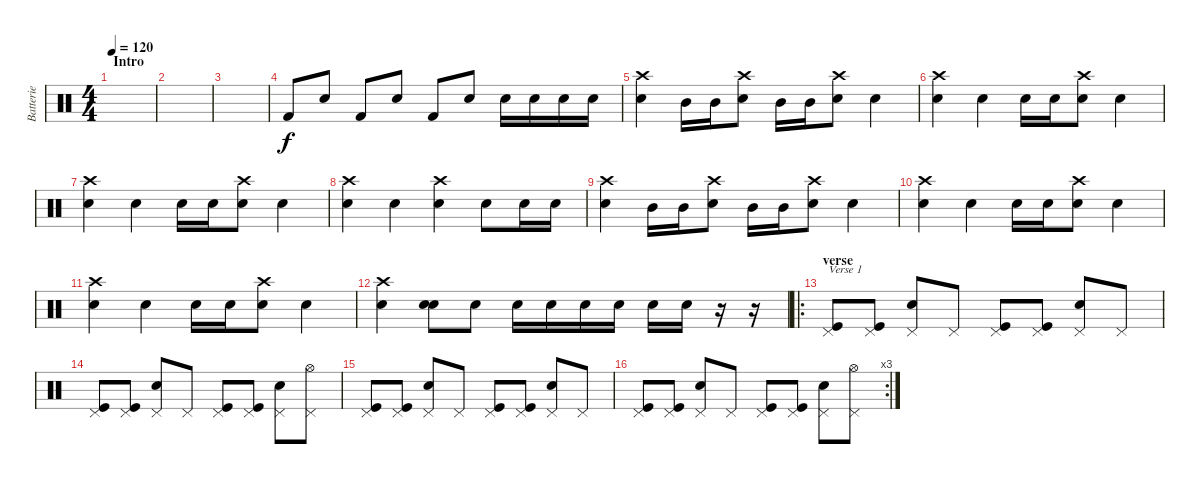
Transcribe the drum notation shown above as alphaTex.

\track ("Batterie" "Batterie") {instrument percussion}
\staff {score}
\articulation defaults
\ts (4 4)
\section ("" "Intro")
\tempo 120
\clef neutral
\ks c
|
|
|
"Kick (hit) 2".8 "Electric Snare (hit)".8 "Kick (hit) 2".8 "Electric Snare (hit)".8 "Kick (hit) 2".8 "Electric Snare (hit)".8 "Electric Snare (hit)".16 "Electric Snare (hit)".16 "Electric Snare (hit)".16 "Electric Snare (hit)".16 |
("Crash high (hit)" "Electric Snare (hit)").4 "Mid Tom (hit)".16 "Mid Tom (hit)".16 ("Crash high (hit)" "Electric Snare (hit)").8 "Mid Tom (hit)".16 "Mid Tom (hit)".16 ("Crash high (hit)" "Electric Snare (hit)").8 "Electric Snare (hit)".4 |
("Crash high (hit)" "Electric Snare (hit)").4 "Electric Snare (hit)".4 "Electric Snare (hit)".16 "Electric Snare (hit)".16 ("Crash high (hit)" "Electric Snare (hit)").8 "Electric Snare (hit)".4 |
("Crash high (hit)" "Electric Snare (hit)").4 "Electric Snare (hit)".4 "Electric Snare (hit)".16 "Electric Snare (hit)".16 ("Crash high (hit)" "Electric Snare (hit)").8 "Electric Snare (hit)".4 |
("Crash high (hit)" "Electric Snare (hit)").4 "Electric Snare (hit)".4 ("Crash high (hit)" "Electric Snare (hit)").4 "Electric Snare (hit)".8 "Electric Snare (hit)".16 "Electric Snare (hit)".16 |
("Crash high (hit)" "Electric Snare (hit)").4 "Mid Tom (hit)".16 "Mid Tom (hit)".16 ("Crash high (hit)" "Electric Snare (hit)").8 "Mid Tom (hit)".16 "Mid Tom (hit)".16 ("Crash high (hit)" "Electric Snare (hit)").8 "Electric Snare (hit)".4 |
("Crash high (hit)" "Electric Snare (hit)").4 "Electric Snare (hit)".4 "Electric Snare (hit)".16 "Electric Snare (hit)".16 ("Crash high (hit)" "Electric Snare (hit)").8 "Electric Snare (hit)".4 |
("Crash high (hit)" "Electric Snare (hit)").4 "Electric Snare (hit)".4 "Electric Snare (hit)".16 "Electric Snare (hit)".16 ("Crash high (hit)" "Electric Snare (hit)").8 "Electric Snare (hit)".4 |
("Crash high (hit)" "Electric Snare (hit)").4 ("Snare (hit) 2" "Electric Snare (hit)").8 "Snare (hit) 2".8 "Snare (hit) 2".16 "Snare (hit) 2".16 "Snare (hit) 2".16 "Snare (hit) 2".16 "Snare (hit) 2".16 "Snare (hit) 2".16 r.16 r.16 |
\ro
\section ("" "verse")
("Pedal Hi-Hat (hit)" "Kick (hit)").8{txt "Verse 1"} ("Pedal Hi-Hat (hit)" "Kick (hit)").8 ("Pedal Hi-Hat (hit)" "Snare (hit) 2").8 "Pedal Hi-Hat (hit)".8 ("Pedal Hi-Hat (hit)" "Kick (hit)").8 ("Pedal Hi-Hat (hit)" "Kick (hit)").8 ("Pedal Hi-Hat (hit)" "Snare (hit) 2").8 "Pedal Hi-Hat (hit)".8 |
("Pedal Hi-Hat (hit)" "Kick (hit)").8 ("Pedal Hi-Hat (hit)" "Kick (hit)").8 ("Pedal Hi-Hat (hit)" "Snare (hit) 2").8 "Pedal Hi-Hat (hit)".8 ("Pedal Hi-Hat (hit)" "Kick (hit)").8 ("Pedal Hi-Hat (hit)" "Kick (hit)").8 ("Pedal Hi-Hat (hit)" "Snare (hit) 2").8 ("Pedal Hi-Hat (hit)" "Hi-Hat (open)").8 |
("Pedal Hi-Hat (hit)" "Kick (hit)").8 ("Pedal Hi-Hat (hit)" "Kick (hit)").8 ("Pedal Hi-Hat (hit)" "Snare (hit) 2").8 "Pedal Hi-Hat (hit)".8 ("Pedal Hi-Hat (hit)" "Kick (hit)").8 ("Pedal Hi-Hat (hit)" "Kick (hit)").8 ("Pedal Hi-Hat (hit)" "Snare (hit) 2").8 "Pedal Hi-Hat (hit)".8 |
\rc 3
("Pedal Hi-Hat (hit)" "Kick (hit)").8 ("Pedal Hi-Hat (hit)" "Kick (hit)").8 ("Pedal Hi-Hat (hit)" "Snare (hit) 2").8 "Pedal Hi-Hat (hit)".8 ("Pedal Hi-Hat (hit)" "Kick (hit)").8 ("Pedal Hi-Hat (hit)" "Kick (hit)").8 ("Pedal Hi-Hat (hit)" "Snare (hit) 2").8 ("Pedal Hi-Hat (hit)" "Hi-Hat (open)").8
